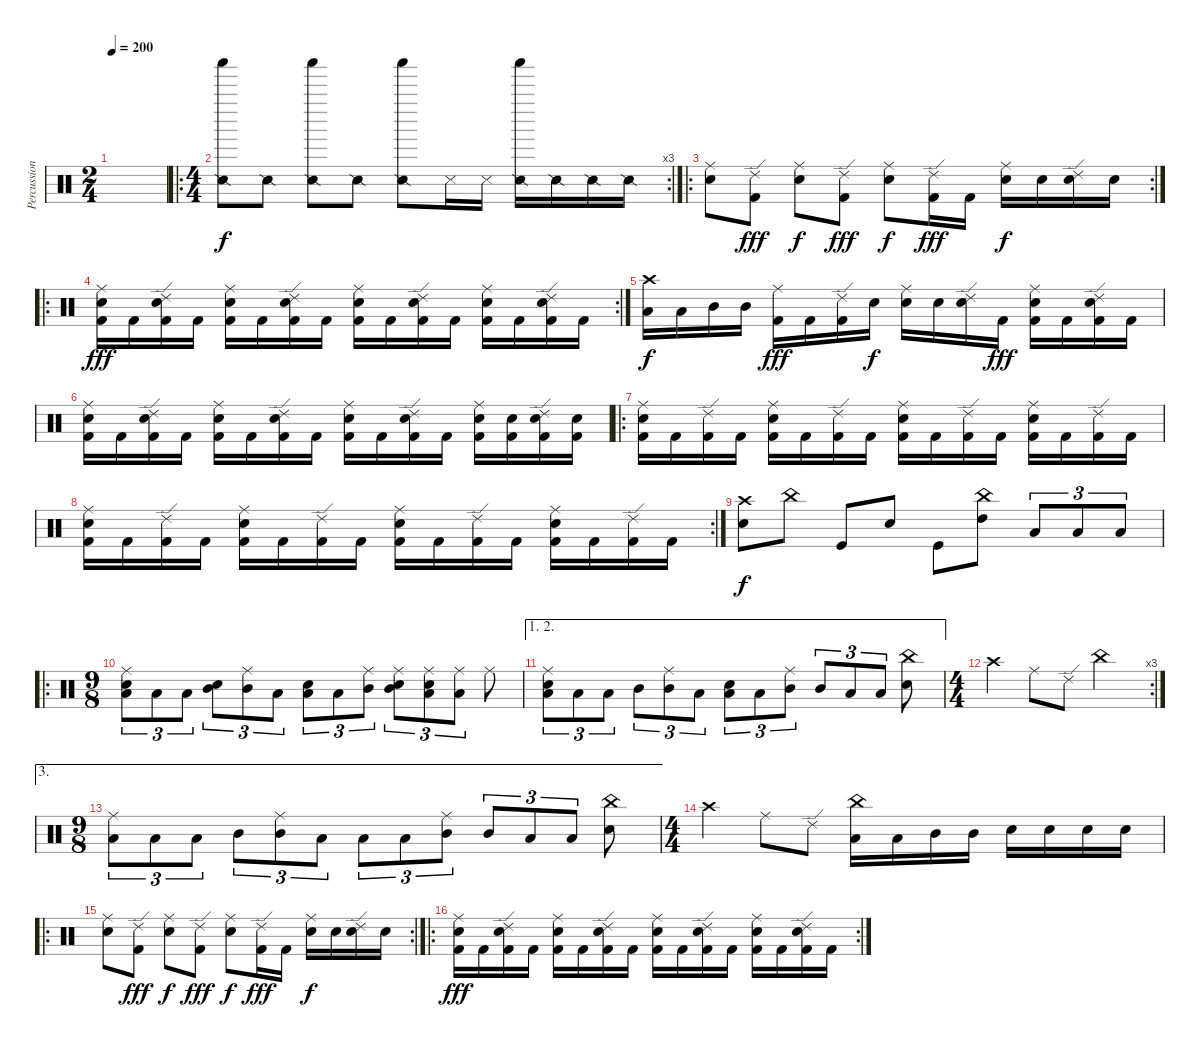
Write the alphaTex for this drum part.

\track ("Percussion" "Percussion") {instrument percussion}
\staff {score}
\articulation defaults
\ts (2 4)
\tempo 200
\clef neutral
\ks c
|
\ro
\rc 3
\ts (4 4)
("Shaker (hit)" "Snare (side stick) 2").8 "Snare (side stick) 2".8 ("Shaker (hit)" "Snare (side stick) 2").8 "Snare (side stick) 2".8 ("Shaker (hit)" "Snare (side stick) 2").8 "Metronome (hit)".16 "Metronome (hit)".16 ("Shaker (hit)" "Snare (side stick) 2").16 "Snare (side stick) 2".16 "Snare (side stick) 2".16 "Snare (side stick) 2".16 |
\ro
\rc 2
("Ride (middle)" "Electric Snare (hit)").8 ("Ride (edge) 2" "Kick (hit) 2").8{dy fff} ("Ride (middle)" "Electric Snare (hit)").8{dy f} ("Ride (edge) 2" "Kick (hit) 2").8{dy fff} ("Ride (middle)" "Electric Snare (hit)").8{dy f} ("Ride (edge) 2" "Kick (hit) 2").16{dy fff} "Kick (hit) 2".16 ("Ride (middle)" "Electric Snare (hit)").16{dy f} "Electric Snare (hit)".16 ("Ride (edge) 2" "Electric Snare (hit)").16 "Electric Snare (hit)".16 |
\ro
\rc 2
("Ride (middle)" "Electric Snare (hit)" "Kick (hit) 2").16{dy fff} "Kick (hit) 2".16 ("Ride (edge) 2" "Electric Snare (hit)" "Kick (hit) 2").16 "Kick (hit) 2".16 ("Ride (middle)" "Electric Snare (hit)" "Kick (hit) 2").16 "Kick (hit) 2".16 ("Ride (edge) 2" "Electric Snare (hit)" "Kick (hit) 2").16 "Kick (hit) 2".16 ("Ride (middle)" "Electric Snare (hit)" "Kick (hit) 2").16 "Kick (hit) 2".16 ("Ride (edge) 2" "Electric Snare (hit)" "Kick (hit) 2").16 "Kick (hit) 2".16 ("Ride (middle)" "Electric Snare (hit)" "Kick (hit) 2").16 "Kick (hit) 2".16 ("Ride (edge) 2" "Electric Snare (hit)" "Kick (hit) 2").16 "Kick (hit) 2".16 |
("Crash high (hit)" "Low Tom (hit)").16{dy f} "Low Tom (hit)".16 "Mid Tom (hit)".16 "Mid Tom (hit)".16 ("Ride (middle)" "Kick (hit) 2").16{dy fff} "Kick (hit) 2".16 ("Ride (edge) 2" "Kick (hit) 2").16 "Electric Snare (hit)".16{dy f} ("Ride (middle)" "Electric Snare (hit)").16 "Electric Snare (hit)".16 ("Ride (edge) 2" "Electric Snare (hit)").16 "Kick (hit) 2".16{dy fff} ("Ride (middle)" "Electric Snare (hit)" "Kick (hit) 2").16 "Kick (hit) 2".16 ("Ride (edge) 2" "Electric Snare (hit)" "Kick (hit) 2").16 "Kick (hit) 2".16 |
("Ride (middle)" "Electric Snare (hit)" "Kick (hit) 2").16 "Kick (hit) 2".16 ("Ride (edge) 2" "Electric Snare (hit)" "Kick (hit) 2").16 "Kick (hit) 2".16 ("Ride (middle)" "Electric Snare (hit)" "Kick (hit) 2").16 "Kick (hit) 2".16 ("Ride (edge) 2" "Electric Snare (hit)" "Kick (hit) 2").16 "Kick (hit) 2".16 ("Ride (middle)" "Electric Snare (hit)" "Kick (hit) 2").16 "Kick (hit) 2".16 ("Ride (edge) 2" "Electric Snare (hit)" "Kick (hit) 2").16 "Kick (hit) 2".16 ("Ride (middle)" "Electric Snare (hit)" "Kick (hit) 2").16 ("Electric Snare (hit)" "Kick (hit) 2").16 ("Ride (edge) 2" "Electric Snare (hit)" "Kick (hit) 2").16 ("Electric Snare (hit)" "Kick (hit) 2").16 |
\ro
("Ride (middle)" "Electric Snare (hit)" "Kick (hit) 2").16 "Kick (hit) 2".16 ("Ride (edge) 2" "Kick (hit) 2").16 "Kick (hit) 2".16 ("Ride (middle)" "Electric Snare (hit)" "Kick (hit) 2").16 "Kick (hit) 2".16 ("Ride (edge) 2" "Kick (hit) 2").16 "Kick (hit) 2".16 ("Ride (middle)" "Electric Snare (hit)" "Kick (hit) 2").16 "Kick (hit) 2".16 ("Ride (edge) 2" "Kick (hit) 2").16 "Kick (hit) 2".16 ("Ride (middle)" "Electric Snare (hit)" "Kick (hit) 2").16 "Kick (hit) 2".16 ("Ride (edge) 2" "Kick (hit) 2").16 "Kick (hit) 2".16 |
\rc 2
("Ride (middle)" "Electric Snare (hit)" "Kick (hit) 2").16 "Kick (hit) 2".16 ("Ride (edge) 2" "Kick (hit) 2").16 "Kick (hit) 2".16 ("Ride (middle)" "Electric Snare (hit)" "Kick (hit) 2").16 "Kick (hit) 2".16 ("Ride (edge) 2" "Kick (hit) 2").16 "Kick (hit) 2".16 ("Ride (middle)" "Electric Snare (hit)" "Kick (hit) 2").16 "Kick (hit) 2".16 ("Ride (edge) 2" "Kick (hit) 2").16 "Kick (hit) 2".16 ("Ride (middle)" "Electric Snare (hit)" "Kick (hit) 2").16 "Kick (hit) 2".16 ("Ride (edge) 2" "Kick (hit) 2").16 "Kick (hit) 2".16 |
("Crash high (hit)" "Electric Snare (hit)").8{dy f} "China (hit)".8 "Kick (hit)".8 "Electric Snare (hit)".8 "Kick (hit)".8 ("China (hit)" "High Tom (hit)").8 "Low Tom (hit)".8{tu (3 2)} "Low Tom (hit)".8{tu (3 2)} "Low Tom (hit)".8{tu (3 2)} |
\ro
\ts (9 8)
("Ride (middle)" "Electric Snare (hit)" "Low Tom (hit)").8{tu (3 2)} "Low Tom (hit)".8{tu (3 2)} "Low Tom (hit)".8{tu (3 2)} ("Electric Snare (hit)" "Mid Tom (hit)").8{tu (3 2)} ("Ride (middle)" "Mid Tom (hit)").8{tu (3 2)} "Low Tom (hit)".8{tu (3 2)} ("Electric Snare (hit)" "Low Tom (hit)").8{tu (3 2)} "Low Tom (hit)".8{tu (3 2)} ("Ride (middle)" "Mid Tom (hit)").8{tu (3 2)} ("Ride (middle)" "Electric Snare (hit)" "Mid Tom (hit)").8{tu (3 2)} ("Ride (middle)" "Electric Snare (hit)" "Low Tom (hit)").8{tu (3 2)} ("Ride (middle)" "Low Tom (hit)").8{tu (3 2)} "Ride (middle)".8 |
\ae (1 2)
("Ride (middle)" "Electric Snare (hit)" "Low Tom (hit)").8{tu (3 2)} "Low Tom (hit)".8{tu (3 2)} "Low Tom (hit)".8{tu (3 2)} "Mid Tom (hit)".8{tu (3 2)} ("Ride (middle)" "Mid Tom (hit)").8{tu (3 2)} "Low Tom (hit)".8{tu (3 2)} ("Electric Snare (hit)" "Low Tom (hit)").8{tu (3 2)} "Low Tom (hit)".8{tu (3 2)} ("Ride (middle)" "Mid Tom (hit)").8{tu (3 2)} "Mid Tom (hit)".8{tu (3 2)} "Low Tom (hit)".8{tu (3 2)} "Low Tom (hit)".8{tu (3 2)} ("China (hit)" "Electric Snare (hit)").8 |
\rc 3
\ts (4 4)
"Crash high (hit)".4 "Ride (middle)".8 "Ride (edge) 2".8 "China (hit)".2 |
\ae 3
\ts (9 8)
("Ride (middle)" "Low Tom (hit)").8{tu (3 2)} "Low Tom (hit)".8{tu (3 2)} "Low Tom (hit)".8{tu (3 2)} "Mid Tom (hit)".8{tu (3 2)} ("Ride (middle)" "Mid Tom (hit)").8{tu (3 2)} "Low Tom (hit)".8{tu (3 2)} "Low Tom (hit)".8{tu (3 2)} "Low Tom (hit)".8{tu (3 2)} ("Ride (middle)" "Mid Tom (hit)").8{tu (3 2)} "Mid Tom (hit)".8{tu (3 2)} "Low Tom (hit)".8{tu (3 2)} "Low Tom (hit)".8{tu (3 2)} ("China (hit)" "Electric Snare (hit)").8 |
\ts (4 4)
"Crash high (hit)".4 "Ride (middle)".8 "Ride (edge) 2".8 ("China (hit)" "Low Tom (hit)").16 "Low Tom (hit)".16 "Mid Tom (hit)".16 "Mid Tom (hit)".16 "Electric Snare (hit)".16 "Electric Snare (hit)".16 "Electric Snare (hit)".16 "Electric Snare (hit)".16 |
\ro
\rc 2
("Ride (middle)" "Electric Snare (hit)").8 ("Ride (edge) 2" "Kick (hit) 2").8{dy fff} ("Ride (middle)" "Electric Snare (hit)").8{dy f} ("Ride (edge) 2" "Kick (hit) 2").8{dy fff} ("Ride (middle)" "Electric Snare (hit)").8{dy f} ("Ride (edge) 2" "Kick (hit) 2").16{dy fff} "Kick (hit) 2".16 ("Ride (middle)" "Electric Snare (hit)").16{dy f} "Electric Snare (hit)".16 ("Ride (edge) 2" "Electric Snare (hit)").16 "Electric Snare (hit)".16 |
\ro
\rc 2
("Ride (middle)" "Electric Snare (hit)" "Kick (hit) 2").16{dy fff} "Kick (hit) 2".16 ("Ride (edge) 2" "Electric Snare (hit)" "Kick (hit) 2").16 "Kick (hit) 2".16 ("Ride (middle)" "Electric Snare (hit)" "Kick (hit) 2").16 "Kick (hit) 2".16 ("Ride (edge) 2" "Electric Snare (hit)" "Kick (hit) 2").16 "Kick (hit) 2".16 ("Ride (middle)" "Electric Snare (hit)" "Kick (hit) 2").16 "Kick (hit) 2".16 ("Ride (edge) 2" "Electric Snare (hit)" "Kick (hit) 2").16 "Kick (hit) 2".16 ("Ride (middle)" "Electric Snare (hit)" "Kick (hit) 2").16 "Kick (hit) 2".16 ("Ride (edge) 2" "Electric Snare (hit)" "Kick (hit) 2").16 "Kick (hit) 2".16
